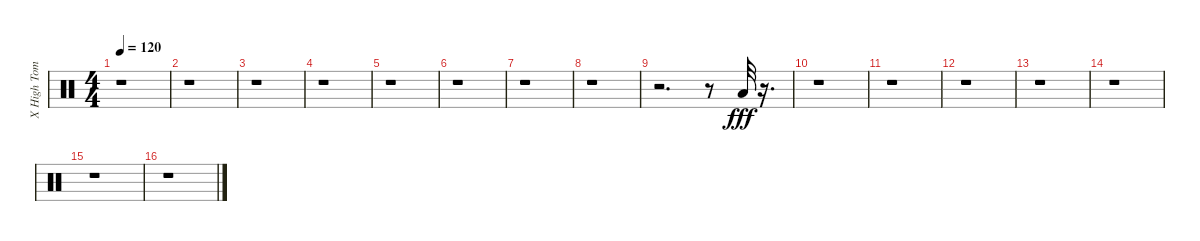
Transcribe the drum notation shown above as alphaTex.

\track ("X High Tom          " "X High Tom") {instrument percussion}
\staff {score}
\articulation defaults
\ts (4 4)
\tempo 120
\clef neutral
\ks c
r.1{dy fff} |
r.1 |
r.1 |
r.1 |
r.1 |
r.1 |
r.1 |
r.1 |
r.2{d} r.8 "Low Tom (hit)".32 r.16{d} |
r.1 |
r.1 |
r.1 |
r.1 |
r.1 |
r.1 |
r.1
